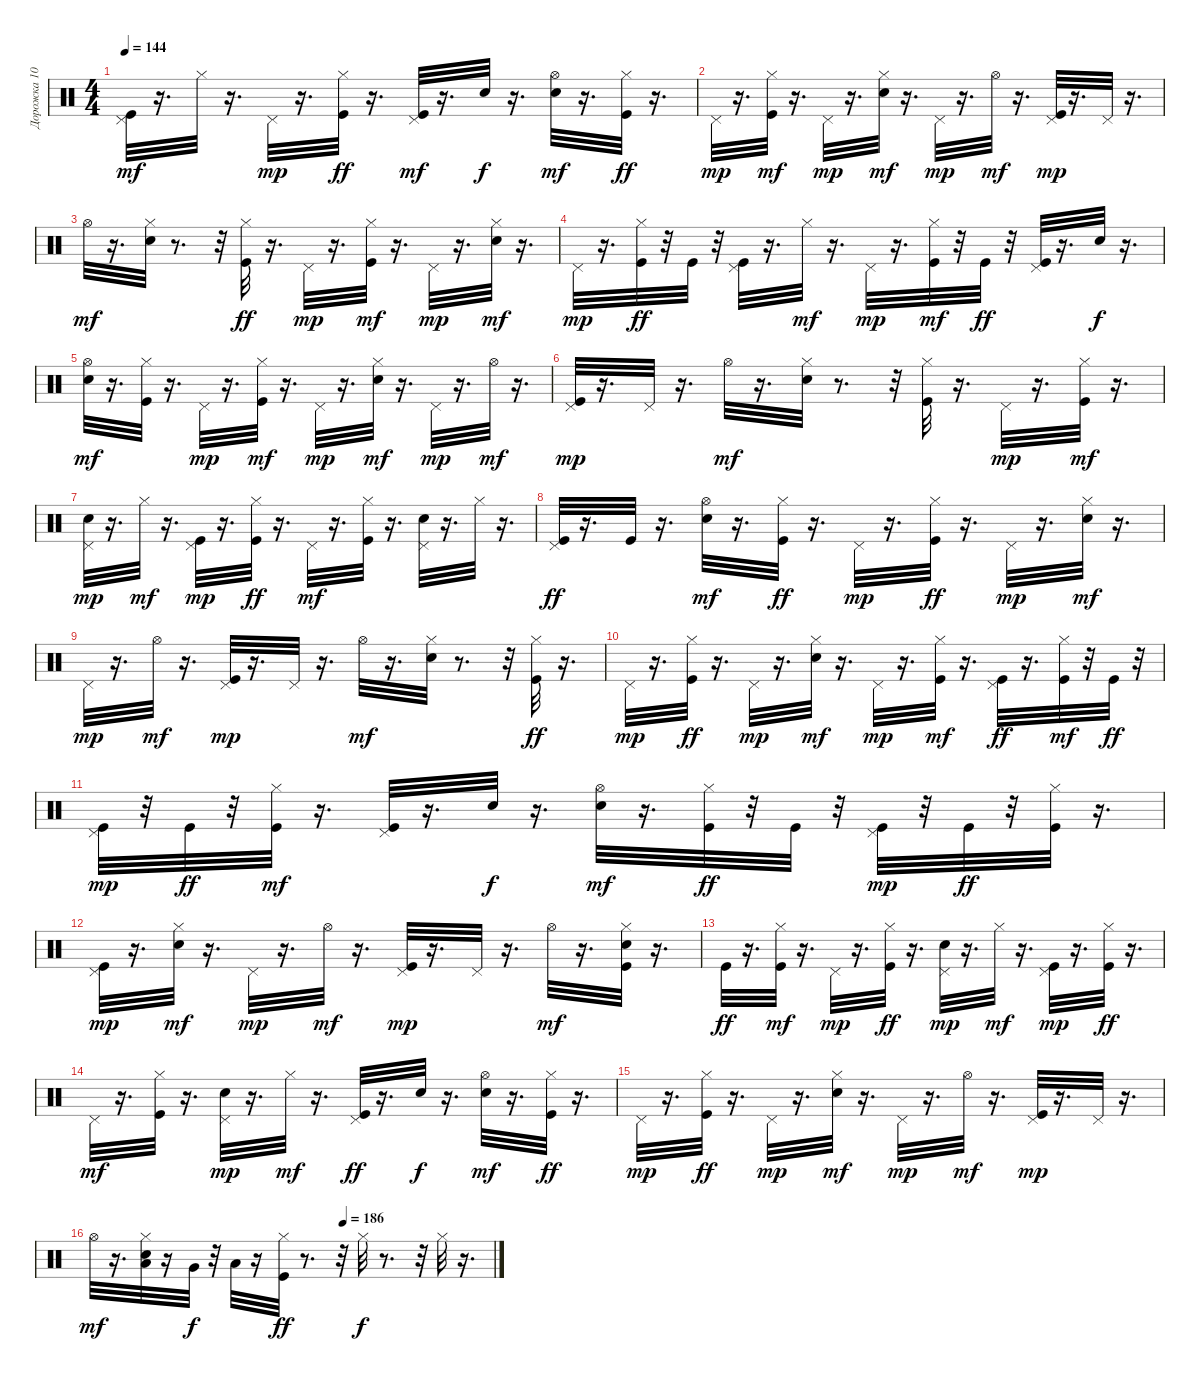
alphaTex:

\track ("Дорожка 10" "Дорожка 10") {instrument percussion}
\staff {score}
\articulation defaults
\ts (4 4)
\tempo 144
\clef neutral
\ks c
("Kick (hit)" "Pedal Hi-Hat (hit)").32{dy mf} r.16{d} "Hi-Hat (closed)".32 r.16{d} "Pedal Hi-Hat (hit)".32{dy mp} r.16{d} ("Hi-Hat (closed)" "Kick (hit)").32{dy ff} r.16{d} ("Kick (hit)" "Pedal Hi-Hat (hit)").32{dy mf} r.16{d} "Electric Snare (hit)".32{dy f} r.16{d} ("Electric Snare (hit)" "Hi-Hat (open)").32{dy mf} r.16{d} ("Hi-Hat (closed)" "Kick (hit)").32{dy ff} r.16{d} |
"Pedal Hi-Hat (hit)".32{dy mp} r.16{d} ("Kick (hit)" "Hi-Hat (closed)").32{dy mf} r.16{d} "Pedal Hi-Hat (hit)".32{dy mp} r.16{d} ("Hi-Hat (closed)" "Electric Snare (hit)").32{dy mf} r.16{d} "Pedal Hi-Hat (hit)".32{dy mp} r.16{d} "Hi-Hat (open)".32{dy mf} r.16{d} ("Pedal Hi-Hat (hit)" "Kick (hit)").32{dy mp} r.16{d} "Pedal Hi-Hat (hit)".32 r.16{d} |
"Hi-Hat (open)".32{dy mf} r.16{d} ("Electric Snare (hit)" "Hi-Hat (closed)").32 r.8{d} r.32 ("Hi-Hat (closed)" "Kick (hit)").32{dy ff} r.16{d} "Pedal Hi-Hat (hit)".32{dy mp} r.16{d} ("Kick (hit)" "Hi-Hat (closed)").32{dy mf} r.16{d} "Pedal Hi-Hat (hit)".32{dy mp} r.16{d} ("Electric Snare (hit)" "Hi-Hat (closed)").32{dy mf} r.16{d} |
"Pedal Hi-Hat (hit)".32{dy mp} r.16{d} ("Hi-Hat (closed)" "Kick (hit)").32{dy ff} r.32 "Kick (hit)".32 r.32 ("Pedal Hi-Hat (hit)" "Kick (hit)").32 r.16{d} "Hi-Hat (closed)".32{dy mf} r.16{d} "Pedal Hi-Hat (hit)".32{dy mp} r.16{d} ("Kick (hit)" "Hi-Hat (closed)").32{dy mf} r.32 "Kick (hit)".32{dy ff} r.32 ("Pedal Hi-Hat (hit)" "Kick (hit)").32 r.16{d} "Electric Snare (hit)".32{dy f} r.16{d} |
("Electric Snare (hit)" "Hi-Hat (open)").32{dy mf} r.16{d} ("Kick (hit)" "Hi-Hat (closed)").32 r.16{d} "Pedal Hi-Hat (hit)".32{dy mp} r.16{d} ("Kick (hit)" "Hi-Hat (closed)").32{dy mf} r.16{d} "Pedal Hi-Hat (hit)".32{dy mp} r.16{d} ("Hi-Hat (closed)" "Electric Snare (hit)").32{dy mf} r.16{d} "Pedal Hi-Hat (hit)".32{dy mp} r.16{d} "Hi-Hat (open)".32{dy mf} r.16{d} |
("Pedal Hi-Hat (hit)" "Kick (hit)").32{dy mp} r.16{d} "Pedal Hi-Hat (hit)".32 r.16{d} "Hi-Hat (open)".32{dy mf} r.16{d} ("Hi-Hat (closed)" "Electric Snare (hit)").32 r.8{d} r.32 ("Kick (hit)" "Hi-Hat (closed)").32 r.16{d} "Pedal Hi-Hat (hit)".32{dy mp} r.16{d} ("Kick (hit)" "Hi-Hat (closed)").32{dy mf} r.16{d} |
("Pedal Hi-Hat (hit)" "Electric Snare (hit)").32{dy mp} r.16{d} "Hi-Hat (closed)".32{dy mf} r.16{d} ("Kick (hit)" "Pedal Hi-Hat (hit)").32{dy mp} r.16{d} ("Hi-Hat (closed)" "Kick (hit)").32{dy ff} r.16{d} "Pedal Hi-Hat (hit)".32{dy mf} r.16{d} ("Kick (hit)" "Hi-Hat (closed)").32 r.16{d} ("Pedal Hi-Hat (hit)" "Electric Snare (hit)").32 r.16{d} "Hi-Hat (closed)".32 r.16{d} |
("Pedal Hi-Hat (hit)" "Kick (hit)").32{dy ff} r.16{d} "Kick (hit)".32 r.16{d} ("Electric Snare (hit)" "Hi-Hat (open)").32{dy mf} r.16{d} ("Hi-Hat (closed)" "Kick (hit)").32{dy ff} r.16{d} "Pedal Hi-Hat (hit)".32{dy mp} r.16{d} ("Hi-Hat (closed)" "Kick (hit)").32{dy ff} r.16{d} "Pedal Hi-Hat (hit)".32{dy mp} r.16{d} ("Electric Snare (hit)" "Hi-Hat (closed)").32{dy mf} r.16{d} |
"Pedal Hi-Hat (hit)".32{dy mp} r.16{d} "Hi-Hat (open)".32{dy mf} r.16{d} ("Kick (hit)" "Pedal Hi-Hat (hit)").32{dy mp} r.16{d} "Pedal Hi-Hat (hit)".32 r.16{d} "Hi-Hat (open)".32{dy mf} r.16{d} ("Electric Snare (hit)" "Hi-Hat (closed)").32 r.8{d} r.32 ("Hi-Hat (closed)" "Kick (hit)").32{dy ff} r.16{d} |
"Pedal Hi-Hat (hit)".32{dy mp} r.16{d} ("Hi-Hat (closed)" "Kick (hit)").32{dy ff} r.16{d} "Pedal Hi-Hat (hit)".32{dy mp} r.16{d} ("Electric Snare (hit)" "Hi-Hat (closed)").32{dy mf} r.16{d} "Pedal Hi-Hat (hit)".32{dy mp} r.16{d} ("Kick (hit)" "Hi-Hat (closed)").32{dy mf} r.16{d} ("Pedal Hi-Hat (hit)" "Kick (hit)").32{dy ff} r.16{d} ("Kick (hit)" "Hi-Hat (closed)").32{dy mf} r.32 "Kick (hit)".32{dy ff} r.32 |
("Kick (hit)" "Pedal Hi-Hat (hit)").32{dy mp} r.32 "Kick (hit)".32{dy ff} r.32 ("Kick (hit)" "Hi-Hat (closed)").32{dy mf} r.16{d} ("Kick (hit)" "Pedal Hi-Hat (hit)").32 r.16{d} "Electric Snare (hit)".32{dy f} r.16{d} ("Hi-Hat (open)" "Electric Snare (hit)").32{dy mf} r.16{d} ("Hi-Hat (closed)" "Kick (hit)").32{dy ff} r.32 "Kick (hit)".32 r.32 ("Kick (hit)" "Pedal Hi-Hat (hit)").32{dy mp} r.32 "Kick (hit)".32{dy ff} r.32 ("Hi-Hat (closed)" "Kick (hit)").32 r.16{d} |
("Kick (hit)" "Pedal Hi-Hat (hit)").32{dy mp} r.16{d} ("Hi-Hat (closed)" "Electric Snare (hit)").32{dy mf} r.16{d} "Pedal Hi-Hat (hit)".32{dy mp} r.16{d} "Hi-Hat (open)".32{dy mf} r.16{d} ("Kick (hit)" "Pedal Hi-Hat (hit)").32{dy mp} r.16{d} "Pedal Hi-Hat (hit)".32 r.16{d} "Hi-Hat (open)".32{dy mf} r.16{d} ("Electric Snare (hit)" "Kick (hit)" "Hi-Hat (closed)").32 r.16{d} |
"Kick (hit)".32{dy ff} r.16{d} ("Kick (hit)" "Hi-Hat (closed)").32{dy mf} r.16{d} "Pedal Hi-Hat (hit)".32{dy mp} r.16{d} ("Hi-Hat (closed)" "Kick (hit)").32{dy ff} r.16{d} ("Pedal Hi-Hat (hit)" "Electric Snare (hit)").32{dy mp} r.16{d} "Hi-Hat (closed)".32{dy mf} r.16{d} ("Kick (hit)" "Pedal Hi-Hat (hit)").32{dy mp} r.16{d} ("Hi-Hat (closed)" "Kick (hit)").32{dy ff} r.16{d} |
"Pedal Hi-Hat (hit)".32{dy mf} r.16{d} ("Kick (hit)" "Hi-Hat (closed)").32 r.16{d} ("Electric Snare (hit)" "Pedal Hi-Hat (hit)").32{dy mp} r.16{d} "Hi-Hat (closed)".32{dy mf} r.16{d} ("Pedal Hi-Hat (hit)" "Kick (hit)").32{dy ff} r.16{d} "Electric Snare (hit)".32{dy f} r.16{d} ("Hi-Hat (open)" "Electric Snare (hit)").32{dy mf} r.16{d} ("Hi-Hat (closed)" "Kick (hit)").32{dy ff} r.16{d} |
"Pedal Hi-Hat (hit)".32{dy mp} r.16{d} ("Hi-Hat (closed)" "Kick (hit)").32{dy ff} r.16{d} "Pedal Hi-Hat (hit)".32{dy mp} r.16{d} ("Electric Snare (hit)" "Hi-Hat (closed)").32{dy mf} r.16{d} "Pedal Hi-Hat (hit)".32{dy mp} r.16{d} "Hi-Hat (open)".32{dy mf} r.16{d} ("Kick (hit)" "Pedal Hi-Hat (hit)").32{dy mp} r.16{d} "Pedal Hi-Hat (hit)".32 r.16{d} |
\tempo (186 0.625)
"Hi-Hat (open)".32{dy mf} r.16{d} ("Low Tom (hit)" "Electric Snare (hit)" "Hi-Hat (closed)").32 r.16 "Very Low Tom (hit)".32{dy f} r.32 "Low Floor Tom (hit)".32 r.16 ("Hi-Hat (closed)" "Kick (hit)").32{dy ff} r.8{d} r.32 "Hi-Hat (closed)".32{dy f} r.8{d} r.32 "Hi-Hat (closed)".32 r.16{d}
